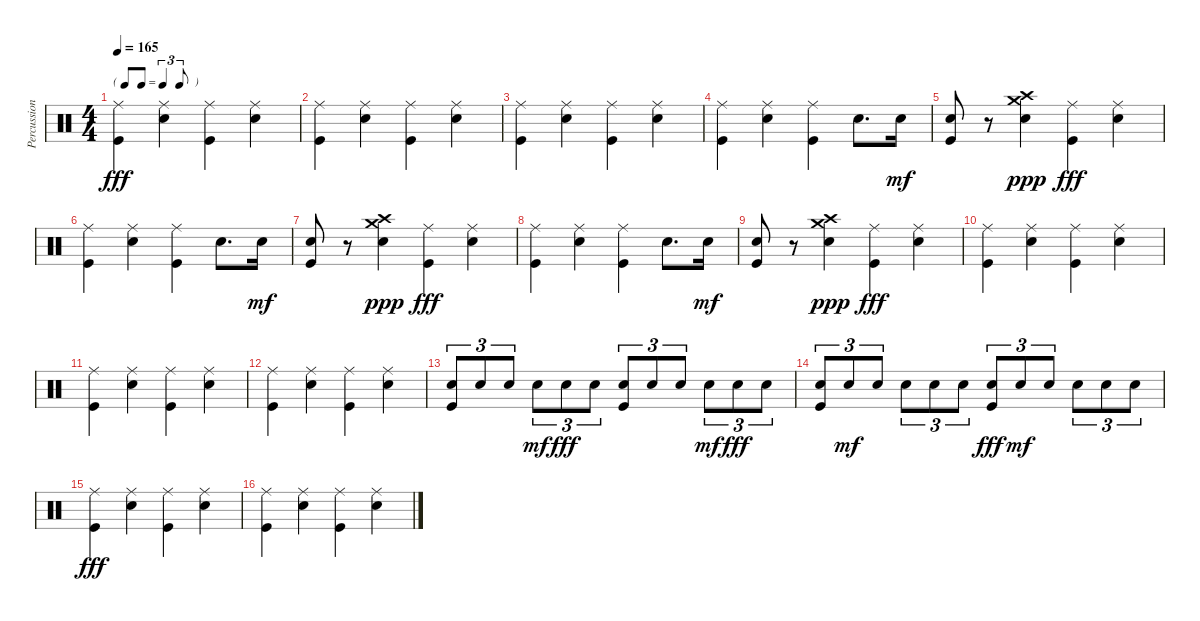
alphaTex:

\track ("Percussions" "Percussion") {instrument percussion}
\staff {score}
\articulation defaults
\ts (4 4)
\tf triplet8th
\tempo 165
\clef neutral
\ks c
("Kick (hit)" "Ride (middle)").4{dy fff} ("Electric Snare (hit)" "Ride (middle)").4 ("Kick (hit)" "Ride (middle)").4 ("Electric Snare (hit)" "Ride (middle)").4 |
("Kick (hit)" "Ride (middle)").4 ("Electric Snare (hit)" "Ride (middle)").4 ("Kick (hit)" "Ride (middle)").4 ("Electric Snare (hit)" "Ride (middle)").4 |
("Kick (hit)" "Ride (middle)").4 ("Electric Snare (hit)" "Ride (middle)").4 ("Kick (hit)" "Ride (middle)").4 ("Electric Snare (hit)" "Ride (middle)").4 |
("Kick (hit)" "Ride (middle)").4 ("Electric Snare (hit)" "Ride (middle)").4 ("Kick (hit)" "Ride (middle)").4 "Electric Snare (hit)".8{d} "Electric Snare (hit)".16{dy mf} |
("Kick (hit)" "Electric Snare (hit)").8 r.8 ("Crash medium (hit)" "Crash high (hit)" "Electric Snare (hit)").4{dy ppp} ("Kick (hit)" "Ride (middle)").4{dy fff} ("Electric Snare (hit)" "Ride (middle)").4 |
("Kick (hit)" "Ride (middle)").4 ("Electric Snare (hit)" "Ride (middle)").4 ("Kick (hit)" "Ride (middle)").4 "Electric Snare (hit)".8{d} "Electric Snare (hit)".16{dy mf} |
("Kick (hit)" "Electric Snare (hit)").8 r.8 ("Crash medium (hit)" "Crash high (hit)" "Electric Snare (hit)").4{dy ppp} ("Kick (hit)" "Ride (middle)").4{dy fff} ("Electric Snare (hit)" "Ride (middle)").4 |
("Kick (hit)" "Ride (middle)").4 ("Electric Snare (hit)" "Ride (middle)").4 ("Kick (hit)" "Ride (middle)").4 "Electric Snare (hit)".8{d} "Electric Snare (hit)".16{dy mf} |
("Kick (hit)" "Electric Snare (hit)").8 r.8 ("Crash medium (hit)" "Crash high (hit)" "Electric Snare (hit)").4{dy ppp} ("Kick (hit)" "Ride (middle)").4{dy fff} ("Electric Snare (hit)" "Ride (middle)").4 |
("Kick (hit)" "Ride (middle)").4 ("Electric Snare (hit)" "Ride (middle)").4 ("Kick (hit)" "Ride (middle)").4 ("Electric Snare (hit)" "Ride (middle)").4 |
("Kick (hit)" "Ride (middle)").4 ("Electric Snare (hit)" "Ride (middle)").4 ("Kick (hit)" "Ride (middle)").4 ("Electric Snare (hit)" "Ride (middle)").4 |
("Kick (hit)" "Ride (middle)").4 ("Electric Snare (hit)" "Ride (middle)").4 ("Kick (hit)" "Ride (middle)").4 ("Electric Snare (hit)" "Ride (middle)").4 |
("Electric Snare (hit)" "Kick (hit)").8{tu (3 2)} "Electric Snare (hit)".8{tu (3 2)} "Electric Snare (hit)".8{tu (3 2)} "Electric Snare (hit)".8{tu (3 2) dy mf} "Electric Snare (hit)".8{tu (3 2) dy fff} "Electric Snare (hit)".8{tu (3 2)} ("Electric Snare (hit)" "Kick (hit)").8{tu (3 2)} "Electric Snare (hit)".8{tu (3 2)} "Electric Snare (hit)".8{tu (3 2)} "Electric Snare (hit)".8{tu (3 2) dy mf} "Electric Snare (hit)".8{tu (3 2) dy fff} "Electric Snare (hit)".8{tu (3 2)} |
("Electric Snare (hit)" "Kick (hit)").8{tu (3 2)} "Electric Snare (hit)".8{tu (3 2) dy mf} "Electric Snare (hit)".8{tu (3 2)} "Electric Snare (hit)".8{tu (3 2)} "Electric Snare (hit)".8{tu (3 2)} "Electric Snare (hit)".8{tu (3 2)} ("Electric Snare (hit)" "Kick (hit)").8{tu (3 2) dy fff} "Electric Snare (hit)".8{tu (3 2) dy mf} "Electric Snare (hit)".8{tu (3 2)} "Electric Snare (hit)".8{tu (3 2)} "Electric Snare (hit)".8{tu (3 2)} "Electric Snare (hit)".8{tu (3 2)} |
("Kick (hit)" "Ride (middle)").4{dy fff} ("Electric Snare (hit)" "Ride (middle)").4 ("Kick (hit)" "Ride (middle)").4 ("Electric Snare (hit)" "Ride (middle)").4 |
("Kick (hit)" "Ride (middle)").4 ("Electric Snare (hit)" "Ride (middle)").4 ("Kick (hit)" "Ride (middle)").4 ("Electric Snare (hit)" "Ride (middle)").4
